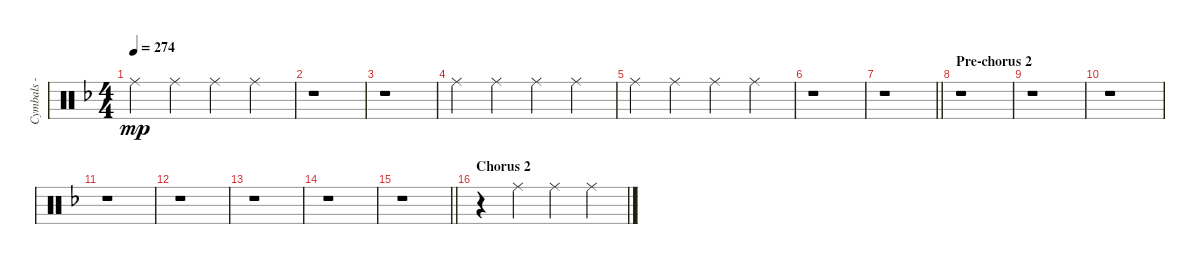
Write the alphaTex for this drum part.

\track ("Cymbals - ride" "Cymbals - ") {instrument percussion}
\staff {score}
\articulation defaults
\ts (4 4)
\tempo 274
\clef neutral
\ks dminor "Ride (middle)".4{dy mp} "Ride (middle)".4 "Ride (middle)".4 "Ride (middle)".4
|
r.1 |
r.1 |
"Ride (middle)".4 "Ride (middle)".4 "Ride (middle)".4 "Ride (middle)".4 |
"Ride (middle)".4 "Ride (middle)".4 "Ride (middle)".4 "Ride (middle)".4 |
r.1{volume 0} |
\barLineRight lightlight
r.1 |
\section ("" "Pre-chorus 2")
r.1 |
r.1 |
r.1 |
r.1 |
r.1 |
r.1 |
r.1 |
\barLineRight lightlight
r.1 |
\section ("" "Chorus 2")
r.4{volume 6} "Ride (middle)".4 "Ride (middle)".4 "Ride (middle)".4
